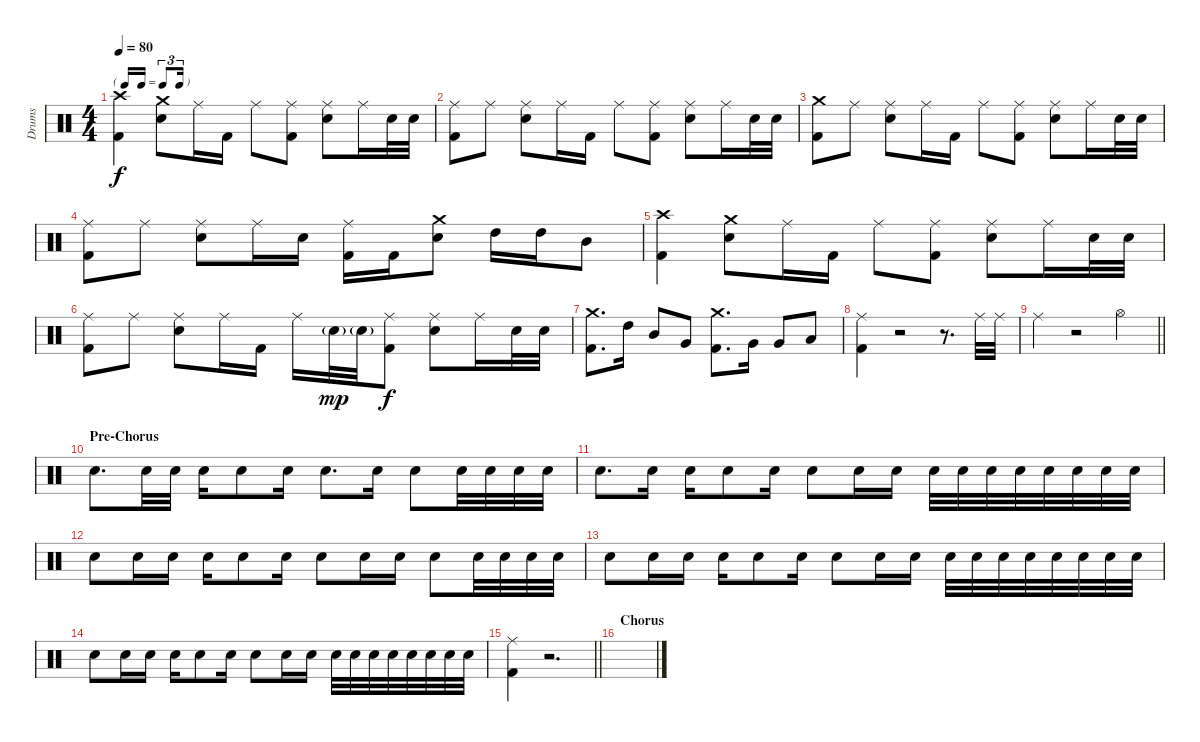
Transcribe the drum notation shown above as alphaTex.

\track ("Drums" "Drums") {instrument percussion}
\staff {score}
\articulation defaults
\ts (4 4)
\tf triplet16th
\tempo 80
\clef neutral
\ks c
("Crash high (hit)" "Kick (hit) 2").4{dy f} ("Crash medium (hit)" "Snare (hit) 2").8 "Ride (middle)".16 "Kick (hit) 2".16 "Ride (middle)".8 ("Ride (middle)" "Kick (hit) 2").8 ("Ride (middle)" "Snare (hit) 2").8 "Ride (middle)".16 "Snare (hit) 2".32 "Snare (hit) 2".32 |
("Ride (middle)" "Kick (hit) 2").8 "Ride (middle)".8 ("Ride (middle)" "Snare (hit) 2").8 "Ride (middle)".16 "Kick (hit) 2".16 "Ride (middle)".8 ("Ride (middle)" "Kick (hit) 2").8 ("Ride (middle)" "Snare (hit) 2").8 "Ride (middle)".16 "Snare (hit) 2".32 "Snare (hit) 2".32 |
("Crash medium (hit)" "Kick (hit) 2").8 "Ride (middle)".8 ("Ride (middle)" "Snare (hit) 2").8 "Ride (middle)".16 "Kick (hit) 2".16 "Ride (middle)".8 ("Ride (middle)" "Kick (hit) 2").8 ("Ride (middle)" "Snare (hit) 2").8 "Ride (middle)".16 "Snare (hit) 2".32 "Snare (hit) 2".32 |
("Ride (middle)" "Kick (hit) 2").8 "Ride (middle)".8 ("Ride (middle)" "Snare (hit) 2").8 "Ride (middle)".16 "Snare (hit) 2".16 ("Ride (middle)" "Kick (hit) 2").16 "Kick (hit) 2".16 ("Crash medium (hit)" "Snare (hit) 2").8 "High Tom (hit)".16 "High Tom (hit)".16 "Mid Tom (hit)".8 |
("Crash high (hit)" "Kick (hit) 2").4 ("Crash medium (hit)" "Snare (hit) 2").8 "Ride (middle)".16 "Kick (hit) 2".16 "Ride (middle)".8 ("Ride (middle)" "Kick (hit) 2").8 ("Ride (middle)" "Snare (hit) 2").8 "Ride (middle)".16 "Snare (hit) 2".32 "Snare (hit) 2".32 |
("Ride (middle)" "Kick (hit) 2").8 "Ride (middle)".8 ("Ride (middle)" "Snare (hit) 2").8 "Ride (middle)".16 "Kick (hit) 2".16 "Ride (middle)".16 "Snare (hit) 2"{g}.32{dy mp} "Snare (hit) 2"{g}.32 ("Ride (middle)" "Kick (hit) 2").8{dy f} ("Ride (middle)" "Snare (hit) 2").8 "Ride (middle)".16 "Snare (hit) 2".32 "Snare (hit) 2".32 |
("Crash medium (hit)" "Kick (hit) 2").8{d} "High Tom (hit)".16 "Mid Tom (hit)".8 "Very Low Tom (hit)".8 ("Crash medium (hit)" "Kick (hit) 2").8{d} "Very Low Tom (hit)".16 "Very Low Tom (hit)".8 "Low Floor Tom (hit)".8 |
("Ride (middle)" "Kick (hit) 2").4 r.2 r.8{d} "Ride (middle)".32 "Ride (middle)".32 |
\barLineRight lightlight "Ride (middle)".4
r.2 "Hi-Hat (open)".4 |
\section ("" "Pre-Chorus")
"Snare (hit) 2".8{d} "Snare (hit) 2".32 "Snare (hit) 2".32 "Snare (hit) 2".16 "Snare (hit) 2".8 "Snare (hit) 2".16 "Snare (hit) 2".8{d} "Snare (hit) 2".16 "Snare (hit) 2".8 "Snare (hit) 2".32 "Snare (hit) 2".32 "Snare (hit) 2".32 "Snare (hit) 2".32 |
"Snare (hit) 2".8{d} "Snare (hit) 2".16 "Snare (hit) 2".16 "Snare (hit) 2".8 "Snare (hit) 2".16 "Snare (hit) 2".8 "Snare (hit) 2".16 "Snare (hit) 2".16 "Snare (hit) 2".32 "Snare (hit) 2".32 "Snare (hit) 2".32 "Snare (hit) 2".32 "Snare (hit) 2".32 "Snare (hit) 2".32 "Snare (hit) 2".32 "Snare (hit) 2".32 |
"Snare (hit) 2".8 "Snare (hit) 2".16 "Snare (hit) 2".16 "Snare (hit) 2".16 "Snare (hit) 2".8 "Snare (hit) 2".16 "Snare (hit) 2".8 "Snare (hit) 2".16 "Snare (hit) 2".16 "Snare (hit) 2".8 "Snare (hit) 2".32 "Snare (hit) 2".32 "Snare (hit) 2".32 "Snare (hit) 2".32 |
"Snare (hit) 2".8 "Snare (hit) 2".16 "Snare (hit) 2".16 "Snare (hit) 2".16 "Snare (hit) 2".8 "Snare (hit) 2".16 "Snare (hit) 2".8 "Snare (hit) 2".16 "Snare (hit) 2".16 "Snare (hit) 2".32 "Snare (hit) 2".32 "Snare (hit) 2".32 "Snare (hit) 2".32 "Snare (hit) 2".32 "Snare (hit) 2".32 "Snare (hit) 2".32 "Snare (hit) 2".32 |
"Snare (hit) 2".8 "Snare (hit) 2".16 "Snare (hit) 2".16 "Snare (hit) 2".16 "Snare (hit) 2".8 "Snare (hit) 2".16 "Snare (hit) 2".8 "Snare (hit) 2".16 "Snare (hit) 2".16 "Snare (hit) 2".32 "Snare (hit) 2".32 "Snare (hit) 2".32 "Snare (hit) 2".32 "Snare (hit) 2".32 "Snare (hit) 2".32 "Snare (hit) 2".32 "Snare (hit) 2".32 |
\barLineRight lightlight
("Ride (middle)" "Kick (hit) 2").4 r.2{d} |
\section ("" "Chorus")
